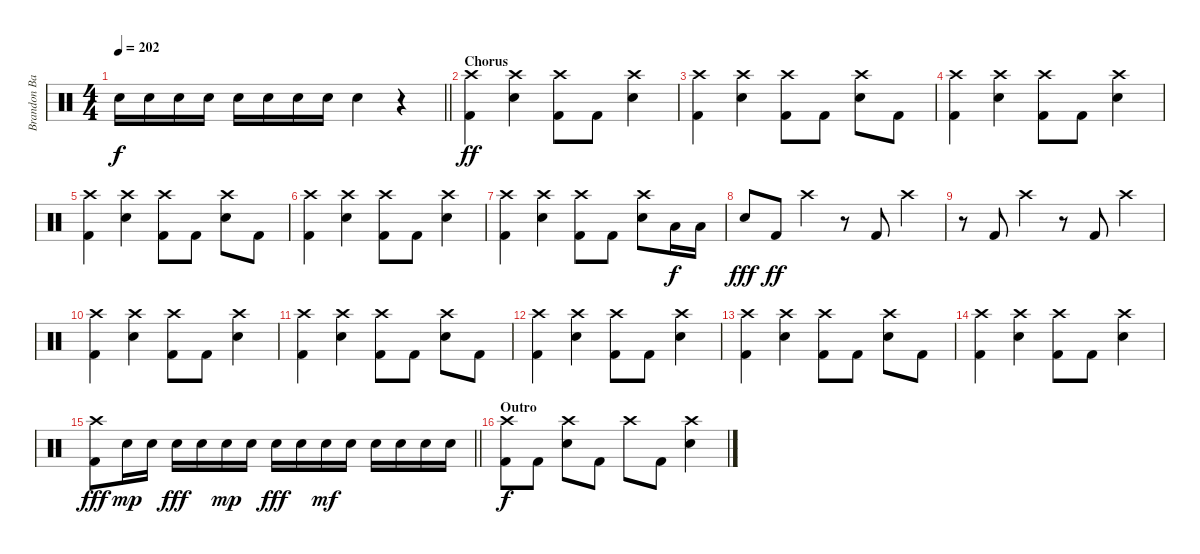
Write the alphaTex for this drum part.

\track ("Brandon Barnes - Drums" "Brandon Ba") {instrument percussion}
\staff {score}
\articulation defaults
\ts (4 4)
\tempo 202
\clef neutral
\barLineRight lightlight
\ks c "Snare (hit) 2".16{dy f} "Snare (hit) 2".16 "Snare (hit) 2".16 "Snare (hit) 2".16 "Snare (hit) 2".16 "Snare (hit) 2".16 "Snare (hit) 2".16 "Snare (hit) 2".16 "Snare (hit) 2".4
r.4 |
\section ("" "Chorus")
("Kick (hit) 2" "Crash high (hit)").4{dy ff} ("Snare (hit) 2" "Crash high (hit)").4 ("Kick (hit) 2" "Crash high (hit)").8 "Kick (hit) 2".8 ("Snare (hit) 2" "Crash high (hit)").4 |
("Kick (hit) 2" "Crash high (hit)").4 ("Snare (hit) 2" "Crash high (hit)").4 ("Kick (hit) 2" "Crash high (hit)").8 "Kick (hit) 2".8 ("Snare (hit) 2" "Crash high (hit)").8 "Kick (hit) 2".8 |
("Kick (hit) 2" "Crash high (hit)").4 ("Snare (hit) 2" "Crash high (hit)").4 ("Kick (hit) 2" "Crash high (hit)").8 "Kick (hit) 2".8 ("Snare (hit) 2" "Crash high (hit)").4 |
("Kick (hit) 2" "Crash high (hit)").4 ("Snare (hit) 2" "Crash high (hit)").4 ("Kick (hit) 2" "Crash high (hit)").8 "Kick (hit) 2".8 ("Snare (hit) 2" "Crash high (hit)").8 "Kick (hit) 2".8 |
("Kick (hit) 2" "Crash high (hit)").4 ("Snare (hit) 2" "Crash high (hit)").4 ("Kick (hit) 2" "Crash high (hit)").8 "Kick (hit) 2".8 ("Snare (hit) 2" "Crash high (hit)").4 |
("Kick (hit) 2" "Crash high (hit)").4 ("Snare (hit) 2" "Crash high (hit)").4 ("Kick (hit) 2" "Crash high (hit)").8 "Kick (hit) 2".8 ("Snare (hit) 2" "Crash high (hit)").8 "Low Tom (hit)".16{dy f} "Low Tom (hit)".16 |
"Snare (hit) 2".8{dy fff} "Kick (hit) 2".8{dy ff} "Crash high (hit)".4 r.8 "Kick (hit) 2".8 "Crash high (hit)".4 |
r.8 "Kick (hit) 2".8 "Crash high (hit)".4 r.8 "Kick (hit) 2".8 "Crash high (hit)".4 |
("Kick (hit) 2" "Crash high (hit)").4 ("Snare (hit) 2" "Crash high (hit)").4 ("Kick (hit) 2" "Crash high (hit)").8 "Kick (hit) 2".8 ("Snare (hit) 2" "Crash high (hit)").4 |
("Kick (hit) 2" "Crash high (hit)").4 ("Snare (hit) 2" "Crash high (hit)").4 ("Kick (hit) 2" "Crash high (hit)").8 "Kick (hit) 2".8 ("Snare (hit) 2" "Crash high (hit)").8 "Kick (hit) 2".8 |
("Kick (hit) 2" "Crash high (hit)").4 ("Snare (hit) 2" "Crash high (hit)").4 ("Kick (hit) 2" "Crash high (hit)").8 "Kick (hit) 2".8 ("Snare (hit) 2" "Crash high (hit)").4 |
("Kick (hit) 2" "Crash high (hit)").4 ("Snare (hit) 2" "Crash high (hit)").4 ("Kick (hit) 2" "Crash high (hit)").8 "Kick (hit) 2".8 ("Snare (hit) 2" "Crash high (hit)").8 "Kick (hit) 2".8 |
("Kick (hit) 2" "Crash high (hit)").4 ("Snare (hit) 2" "Crash high (hit)").4 ("Kick (hit) 2" "Crash high (hit)").8 "Kick (hit) 2".8 ("Snare (hit) 2" "Crash high (hit)").4 |
\barLineRight lightlight
("Crash high (hit)" "Kick (hit) 2").8{dy fff} "Snare (hit) 2".16{dy mp} "Snare (hit) 2".16 "Snare (hit) 2".16{dy fff} "Snare (hit) 2".16 "Snare (hit) 2".16{dy mp} "Snare (hit) 2".16 "Snare (hit) 2".16{dy fff} "Snare (hit) 2".16 "Snare (hit) 2".16{dy mf} "Snare (hit) 2".16 "Snare (hit) 2".16 "Snare (hit) 2".16 "Snare (hit) 2".16 "Snare (hit) 2".16 |
\section ("" "Outro")
("Kick (hit) 2" "Crash high (hit)").8{dy f} "Kick (hit) 2".8 ("Snare (hit) 2" "Crash high (hit)").8 "Kick (hit) 2".8 "Crash high (hit)".8 "Kick (hit) 2".8 ("Snare (hit) 2" "Crash high (hit)").4
